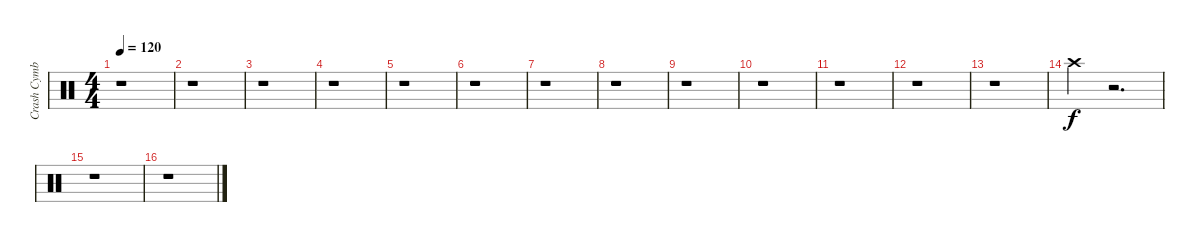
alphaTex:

\track ("Crash Cymbal" "Crash Cymb") {instrument percussion}
\staff {score}
\articulation defaults
\ts (4 4)
\tempo 120
\clef neutral
\ks c
r.1{dy f} |
r.1 |
r.1 |
r.1 |
r.1 |
r.1 |
r.1 |
r.1 |
r.1 |
r.1 |
r.1 |
r.1 |
r.1 |
"Crash high (hit)".4 r.2{d} |
r.1 |
r.1
